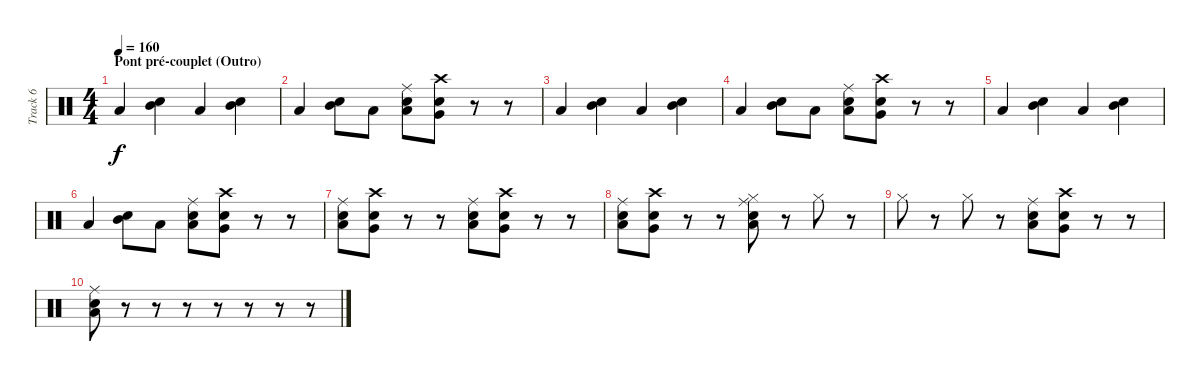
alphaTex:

\track ("Track 6" "Track 6") {instrument percussion}
\staff {score}
\articulation defaults
\ts (4 4)
\section ("" "Pont pré-couplet (Outro)")
\tempo 160
\clef neutral
\ks c "Low Tom (hit)".4{dy f}
("Mid Tom (hit)" "Snare (hit) 2").4 "Low Tom (hit)".4 ("Mid Tom (hit)" "Snare (hit) 2").4 |
"Low Tom (hit)".4 ("Mid Tom (hit)" "Snare (hit) 2").8 "Low Floor Tom (hit)".8 ("Low Tom (hit)" "Ride (middle)" "Electric Snare (hit)").8 ("Very Low Tom (hit)" "Crash high (hit)" "Snare (hit) 2").8 r.8 r.8 |
"Low Tom (hit)".4 ("Mid Tom (hit)" "Snare (hit) 2").4 "Low Tom (hit)".4 ("Mid Tom (hit)" "Snare (hit) 2").4 |
"Low Tom (hit)".4 ("Mid Tom (hit)" "Snare (hit) 2").8 "Low Floor Tom (hit)".8 ("Low Tom (hit)" "Ride (middle)" "Electric Snare (hit)").8 ("Very Low Tom (hit)" "Crash high (hit)" "Snare (hit) 2").8 r.8 r.8 |
"Low Tom (hit)".4 ("Mid Tom (hit)" "Snare (hit) 2").4 "Low Tom (hit)".4 ("Mid Tom (hit)" "Snare (hit) 2").4 |
"Low Tom (hit)".4 ("Mid Tom (hit)" "Snare (hit) 2").8 "Low Floor Tom (hit)".8 ("Low Tom (hit)" "Ride (middle)" "Electric Snare (hit)").8 ("Very Low Tom (hit)" "Crash high (hit)" "Snare (hit) 2").8 r.8 r.8 |
("Low Tom (hit)" "Ride (middle)" "Electric Snare (hit)").8 ("Very Low Tom (hit)" "Crash high (hit)" "Snare (hit) 2").8 r.8 r.8 ("Low Tom (hit)" "Ride (middle)" "Electric Snare (hit)").8 ("Very Low Tom (hit)" "Crash high (hit)" "Snare (hit) 2").8 r.8 r.8 |
("Low Tom (hit)" "Ride (middle)" "Electric Snare (hit)").8 ("Very Low Tom (hit)" "Crash high (hit)" "Snare (hit) 2").8 r.8 r.8 ("Low Tom (hit)" "Ride (middle)" "Electric Snare (hit)" "Hi-Hat (closed)").8 r.8 "Hi-Hat (closed)".8 r.8 |
"Hi-Hat (closed)".8 r.8 "Hi-Hat (closed)".8 r.8 ("Low Tom (hit)" "Ride (middle)" "Electric Snare (hit)").8 ("Very Low Tom (hit)" "Crash high (hit)" "Snare (hit) 2").8 r.8 r.8 |
("Low Tom (hit)" "Ride (middle)" "Electric Snare (hit)").8 r.8 r.8 r.8 r.8 r.8 r.8 r.8
